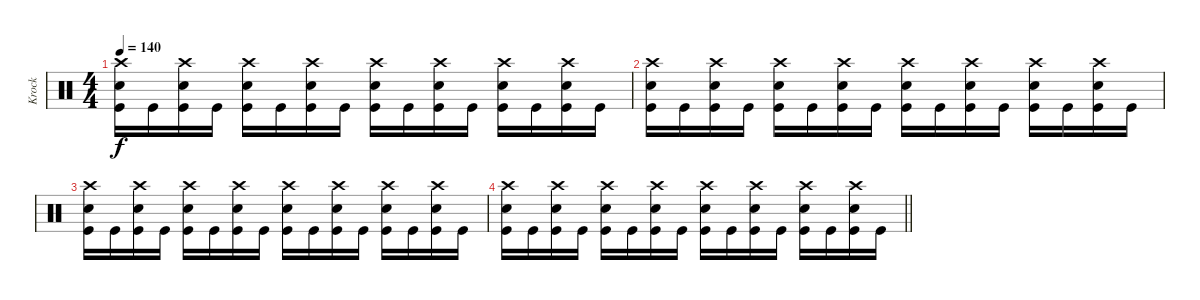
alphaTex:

\track ("Krock" "Krock") {instrument percussion}
\staff {score}
\articulation defaults
\ts (4 4)
\tempo 140
\clef neutral
\ks c
("Crash high (hit)" "Snare (hit) 2" "Kick (hit)").16{dy f} "Kick (hit)".16 ("Crash high (hit)" "Snare (hit) 2" "Kick (hit)").16 "Kick (hit)".16 ("Crash high (hit)" "Snare (hit) 2" "Kick (hit)").16 "Kick (hit)".16 ("Crash high (hit)" "Snare (hit) 2" "Kick (hit)").16 "Kick (hit)".16 ("Crash high (hit)" "Snare (hit) 2" "Kick (hit)").16 "Kick (hit)".16 ("Crash high (hit)" "Snare (hit) 2" "Kick (hit)").16 "Kick (hit)".16 ("Crash high (hit)" "Snare (hit) 2" "Kick (hit)").16 "Kick (hit)".16 ("Crash high (hit)" "Snare (hit) 2" "Kick (hit)").16 "Kick (hit)".16 |
("Crash high (hit)" "Snare (hit) 2" "Kick (hit)").16 "Kick (hit)".16 ("Crash high (hit)" "Snare (hit) 2" "Kick (hit)").16 "Kick (hit)".16 ("Crash high (hit)" "Snare (hit) 2" "Kick (hit)").16 "Kick (hit)".16 ("Crash high (hit)" "Snare (hit) 2" "Kick (hit)").16 "Kick (hit)".16 ("Crash high (hit)" "Snare (hit) 2" "Kick (hit)").16 "Kick (hit)".16 ("Crash high (hit)" "Snare (hit) 2" "Kick (hit)").16 "Kick (hit)".16 ("Crash high (hit)" "Snare (hit) 2" "Kick (hit)").16 "Kick (hit)".16 ("Crash high (hit)" "Snare (hit) 2" "Kick (hit)").16 "Kick (hit)".16 |
("Crash high (hit)" "Snare (hit) 2" "Kick (hit)").16 "Kick (hit)".16 ("Crash high (hit)" "Snare (hit) 2" "Kick (hit)").16 "Kick (hit)".16 ("Crash high (hit)" "Snare (hit) 2" "Kick (hit)").16 "Kick (hit)".16 ("Crash high (hit)" "Snare (hit) 2" "Kick (hit)").16 "Kick (hit)".16 ("Crash high (hit)" "Snare (hit) 2" "Kick (hit)").16 "Kick (hit)".16 ("Crash high (hit)" "Snare (hit) 2" "Kick (hit)").16 "Kick (hit)".16 ("Crash high (hit)" "Snare (hit) 2" "Kick (hit)").16 "Kick (hit)".16 ("Crash high (hit)" "Snare (hit) 2" "Kick (hit)").16 "Kick (hit)".16 |
\barLineRight lightlight
("Crash high (hit)" "Snare (hit) 2" "Kick (hit)").16 "Kick (hit)".16 ("Crash high (hit)" "Snare (hit) 2" "Kick (hit)").16 "Kick (hit)".16 ("Crash high (hit)" "Snare (hit) 2" "Kick (hit)").16 "Kick (hit)".16 ("Crash high (hit)" "Snare (hit) 2" "Kick (hit)").16 "Kick (hit)".16 ("Crash high (hit)" "Snare (hit) 2" "Kick (hit)").16 "Kick (hit)".16 ("Crash high (hit)" "Snare (hit) 2" "Kick (hit)").16 "Kick (hit)".16 ("Crash high (hit)" "Snare (hit) 2" "Kick (hit)").16 "Kick (hit)".16 ("Crash high (hit)" "Snare (hit) 2" "Kick (hit)").16 "Kick (hit)".16
